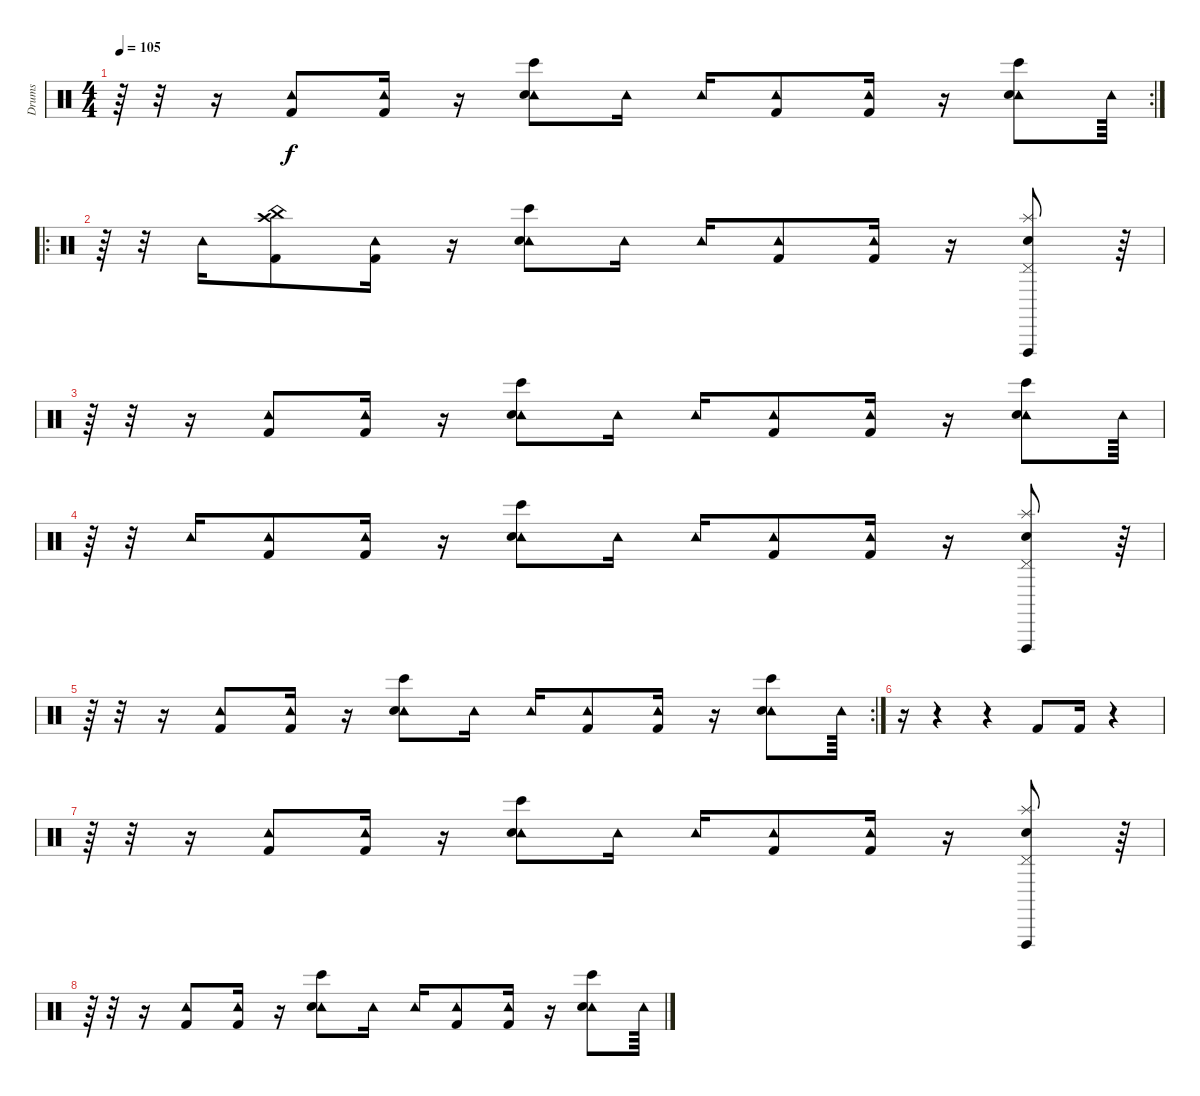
\track ("Drums" "Drums") {instrument percussion}
\staff {score}
\articulation defaults
\rc 2
\ts (4 4)
\tempo 105
\clef neutral
\ks c
r.64{dy f} r.32 r.16 ("Tambourine (hit)" "Kick (hit) 2").8 ("Tambourine (hit)" "Kick (hit) 2").16 r.16 ("Tambourine (hit)" "Electric Snare (hit)" "Bongo High (hit)").8 "Tambourine (hit)".16 "Tambourine (hit)".16 ("Tambourine (hit)" "Kick (hit) 2").8 ("Tambourine (hit)" "Kick (hit) 2").16 r.16 ("Tambourine (hit)" "Electric Snare (hit)" "Bongo High (hit)").8 "Tambourine (hit)".64 |
\ro
r.64 r.32 "Tambourine (hit)".16 ("Crash high (hit)" "Kick (hit) 2" "China (hit)").8 ("Tambourine (hit)" "Kick (hit) 2").16 r.16 ("Tambourine (hit)" "Electric Snare (hit)" "Bongo High (hit)").8 "Tambourine (hit)".16 "Tambourine (hit)".16 ("Tambourine (hit)" "Kick (hit) 2").8 ("Tambourine (hit)" "Kick (hit) 2").16 r.16 ("Splash (hit)" "Electric Snare (hit)" "Pedal Hi-Hat (hit)" "Vibraslap (hit)").8 r.64 |
r.64 r.32 r.16 ("Tambourine (hit)" "Kick (hit) 2").8 ("Tambourine (hit)" "Kick (hit) 2").16 r.16 ("Tambourine (hit)" "Electric Snare (hit)" "Bongo High (hit)").8 "Tambourine (hit)".16 "Tambourine (hit)".16 ("Tambourine (hit)" "Kick (hit) 2").8 ("Tambourine (hit)" "Kick (hit) 2").16 r.16 ("Tambourine (hit)" "Electric Snare (hit)" "Bongo High (hit)").8 "Tambourine (hit)".64 |
r.64 r.32 "Tambourine (hit)".16 ("Tambourine (hit)" "Kick (hit) 2").8 ("Tambourine (hit)" "Kick (hit) 2").16 r.16 ("Tambourine (hit)" "Electric Snare (hit)" "Bongo High (hit)").8 "Tambourine (hit)".16 "Tambourine (hit)".16 ("Tambourine (hit)" "Kick (hit) 2").8 ("Tambourine (hit)" "Kick (hit) 2").16 r.16 ("Splash (hit)" "Electric Snare (hit)" "Pedal Hi-Hat (hit)" "Vibraslap (hit)").8 r.64 |
\rc 2
r.64 r.32 r.16 ("Tambourine (hit)" "Kick (hit) 2").8 ("Tambourine (hit)" "Kick (hit) 2").16 r.16 ("Tambourine (hit)" "Electric Snare (hit)" "Bongo High (hit)").8 "Tambourine (hit)".16 "Tambourine (hit)".16 ("Tambourine (hit)" "Kick (hit) 2").8 ("Tambourine (hit)" "Kick (hit) 2").16 r.16 ("Tambourine (hit)" "Electric Snare (hit)" "Bongo High (hit)").8 "Tambourine (hit)".64 |
r.16 r.4 r.4 "Kick (hit) 2".8 "Kick (hit) 2".16 r.4 |
r.64 r.32 r.16 ("Tambourine (hit)" "Kick (hit) 2").8 ("Tambourine (hit)" "Kick (hit) 2").16 r.16 ("Tambourine (hit)" "Electric Snare (hit)" "Bongo High (hit)").8 "Tambourine (hit)".16 "Tambourine (hit)".16 ("Tambourine (hit)" "Kick (hit) 2").8 ("Tambourine (hit)" "Kick (hit) 2").16 r.16 ("Splash (hit)" "Electric Snare (hit)" "Pedal Hi-Hat (hit)" "Vibraslap (hit)").8 r.64 |
r.64 r.32 r.16 ("Tambourine (hit)" "Kick (hit) 2").8 ("Tambourine (hit)" "Kick (hit) 2").16 r.16 ("Tambourine (hit)" "Electric Snare (hit)" "Bongo High (hit)").8 "Tambourine (hit)".16 "Tambourine (hit)".16 ("Tambourine (hit)" "Kick (hit) 2").8 ("Tambourine (hit)" "Kick (hit) 2").16 r.16 ("Tambourine (hit)" "Electric Snare (hit)" "Bongo High (hit)").8 "Tambourine (hit)".64
